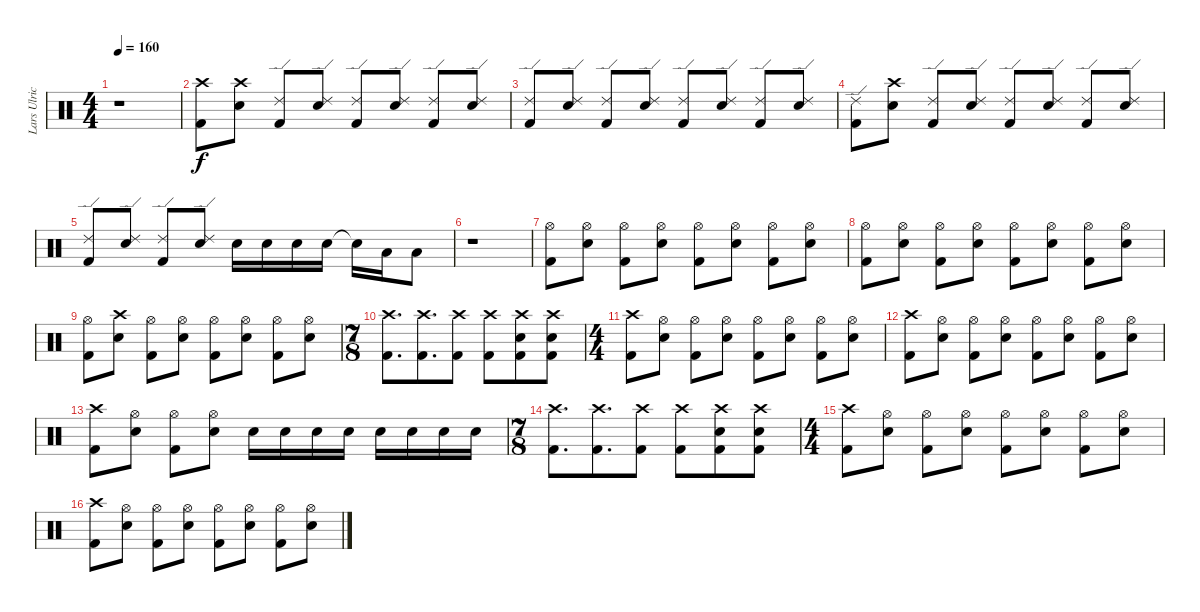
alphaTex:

\track ("Lars Ulrich (Drums)" "Lars Ulric") {instrument percussion}
\staff {score}
\articulation defaults
\ts (4 4)
\tempo 160
\clef neutral
\ks c
r.1{dy f} |
("Crash high (hit)" "Kick (hit) 2").8 ("Crash high (hit)" "Electric Snare (hit)").8 ("Ride (edge) 2" "Kick (hit) 2").8 ("Ride (edge) 2" "Electric Snare (hit)").8 ("Ride (edge) 2" "Kick (hit) 2").8 ("Ride (edge) 2" "Electric Snare (hit)").8 ("Ride (edge) 2" "Kick (hit) 2").8 ("Ride (edge) 2" "Electric Snare (hit)").8 |
("Ride (edge) 2" "Kick (hit) 2").8 ("Ride (edge) 2" "Electric Snare (hit)").8 ("Ride (edge) 2" "Kick (hit) 2").8 ("Ride (edge) 2" "Electric Snare (hit)").8 ("Ride (edge) 2" "Kick (hit) 2").8 ("Ride (edge) 2" "Electric Snare (hit)").8 ("Ride (edge) 2" "Kick (hit) 2").8 ("Ride (edge) 2" "Electric Snare (hit)").8 |
("Ride (edge) 2" "Kick (hit) 2").8 ("Crash high (hit)" "Electric Snare (hit)").8 ("Ride (edge) 2" "Kick (hit) 2").8 ("Ride (edge) 2" "Electric Snare (hit)").8 ("Ride (edge) 2" "Kick (hit) 2").8 ("Ride (edge) 2" "Electric Snare (hit)").8 ("Ride (edge) 2" "Kick (hit) 2").8 ("Ride (edge) 2" "Electric Snare (hit)").8 |
("Ride (edge) 2" "Kick (hit) 2").8 ("Ride (edge) 2" "Electric Snare (hit)").8 ("Ride (edge) 2" "Kick (hit) 2").8 ("Ride (edge) 2" "Electric Snare (hit)").8 "Electric Snare (hit)".16 "Electric Snare (hit)".16 "Electric Snare (hit)".16 "Electric Snare (hit)".16 "Snare (hit)"{t}.16 "Low Tom (hit)".16 "Low Tom (hit)".8 |
r.1 |
("Hi-Hat (open)" "Kick (hit) 2").8 ("Hi-Hat (open)" "Electric Snare (hit)").8 ("Hi-Hat (open)" "Kick (hit) 2").8 ("Hi-Hat (open)" "Electric Snare (hit)").8 ("Hi-Hat (open)" "Kick (hit) 2").8 ("Hi-Hat (open)" "Electric Snare (hit)").8 ("Hi-Hat (open)" "Kick (hit) 2").8 ("Hi-Hat (open)" "Electric Snare (hit)").8 |
("Hi-Hat (open)" "Kick (hit) 2").8 ("Hi-Hat (open)" "Electric Snare (hit)").8 ("Hi-Hat (open)" "Kick (hit) 2").8 ("Hi-Hat (open)" "Electric Snare (hit)").8 ("Hi-Hat (open)" "Kick (hit) 2").8 ("Hi-Hat (open)" "Electric Snare (hit)").8 ("Hi-Hat (open)" "Kick (hit) 2").8 ("Hi-Hat (open)" "Electric Snare (hit)").8 |
("Hi-Hat (open)" "Kick (hit) 2").8 ("Crash high (hit)" "Electric Snare (hit)").8 ("Hi-Hat (open)" "Kick (hit) 2").8 ("Hi-Hat (open)" "Electric Snare (hit)").8 ("Hi-Hat (open)" "Kick (hit) 2").8 ("Hi-Hat (open)" "Electric Snare (hit)").8 ("Hi-Hat (open)" "Kick (hit) 2").8 ("Hi-Hat (open)" "Electric Snare (hit)").8 |
\ts (7 8)
("Crash high (hit)" "Kick (hit) 2").8{d} ("Crash high (hit)" "Kick (hit) 2").8{d} ("Crash high (hit)" "Kick (hit) 2").8 ("Crash high (hit)" "Kick (hit) 2").8 ("Crash high (hit)" "Electric Snare (hit)" "Kick (hit) 2").8 ("Crash high (hit)" "Electric Snare (hit)" "Kick (hit) 2").8 |
\ts (4 4)
("Crash high (hit)" "Kick (hit) 2").8 ("Hi-Hat (open)" "Electric Snare (hit)").8 ("Hi-Hat (open)" "Kick (hit) 2").8 ("Hi-Hat (open)" "Electric Snare (hit)").8 ("Hi-Hat (open)" "Kick (hit) 2").8 ("Hi-Hat (open)" "Electric Snare (hit)").8 ("Hi-Hat (open)" "Kick (hit) 2").8 ("Hi-Hat (open)" "Electric Snare (hit)").8 |
("Crash high (hit)" "Kick (hit) 2").8 ("Hi-Hat (open)" "Electric Snare (hit)").8 ("Hi-Hat (open)" "Kick (hit) 2").8 ("Hi-Hat (open)" "Electric Snare (hit)").8 ("Hi-Hat (open)" "Kick (hit) 2").8 ("Hi-Hat (open)" "Electric Snare (hit)").8 ("Hi-Hat (open)" "Kick (hit) 2").8 ("Hi-Hat (open)" "Electric Snare (hit)").8 |
("Crash high (hit)" "Kick (hit) 2").8 ("Hi-Hat (open)" "Electric Snare (hit)").8 ("Hi-Hat (open)" "Kick (hit) 2").8 ("Hi-Hat (open)" "Electric Snare (hit)").8 "Electric Snare (hit)".16 "Electric Snare (hit)".16 "Electric Snare (hit)".16 "Electric Snare (hit)".16 "Electric Snare (hit)".16 "Electric Snare (hit)".16 "Electric Snare (hit)".16 "Electric Snare (hit)".16 |
\ts (7 8)
("Crash high (hit)" "Kick (hit) 2").8{d} ("Crash high (hit)" "Kick (hit) 2").8{d} ("Crash high (hit)" "Kick (hit) 2").8 ("Crash high (hit)" "Kick (hit) 2").8 ("Crash high (hit)" "Electric Snare (hit)" "Kick (hit) 2").8 ("Crash high (hit)" "Electric Snare (hit)" "Kick (hit) 2").8 |
\ts (4 4)
("Crash high (hit)" "Kick (hit) 2").8 ("Hi-Hat (open)" "Electric Snare (hit)").8 ("Hi-Hat (open)" "Kick (hit) 2").8 ("Hi-Hat (open)" "Electric Snare (hit)").8 ("Hi-Hat (open)" "Kick (hit) 2").8 ("Hi-Hat (open)" "Electric Snare (hit)").8 ("Hi-Hat (open)" "Kick (hit) 2").8 ("Hi-Hat (open)" "Electric Snare (hit)").8 |
("Crash high (hit)" "Kick (hit) 2").8 ("Hi-Hat (open)" "Electric Snare (hit)").8 ("Hi-Hat (open)" "Kick (hit) 2").8 ("Hi-Hat (open)" "Electric Snare (hit)").8 ("Hi-Hat (open)" "Kick (hit) 2").8 ("Hi-Hat (open)" "Electric Snare (hit)").8 ("Hi-Hat (open)" "Kick (hit) 2").8 ("Hi-Hat (open)" "Electric Snare (hit)").8
